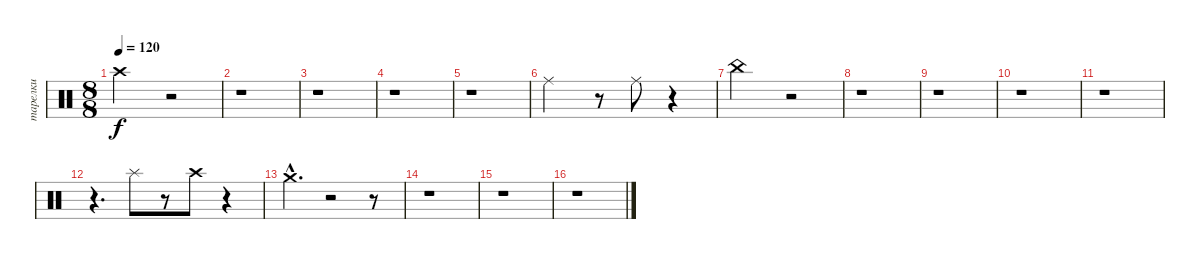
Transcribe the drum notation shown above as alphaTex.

\track ("тарелки" "тарелки") {instrument percussion}
\staff {score}
\articulation defaults
\ts (8 8)
\tempo 120
\clef neutral
\ks c "Crash high (hit)".2{dy f}
r.2 |
r.1 |
r.1 |
r.1 |
r.1 |
"Ride (middle)".2 r.8 "Ride (middle)".8 r.4 |
"China (hit)".2 r.2 |
r.1 |
r.1 |
r.1 |
r.1 |
r.4{d} "Splash (hit)".8 r.8 "Crash high (hit)".8 r.4 |
"Crash medium (hit)"{hac}.4{d} r.2 r.8 |
r.1 |
r.1 |
r.1
